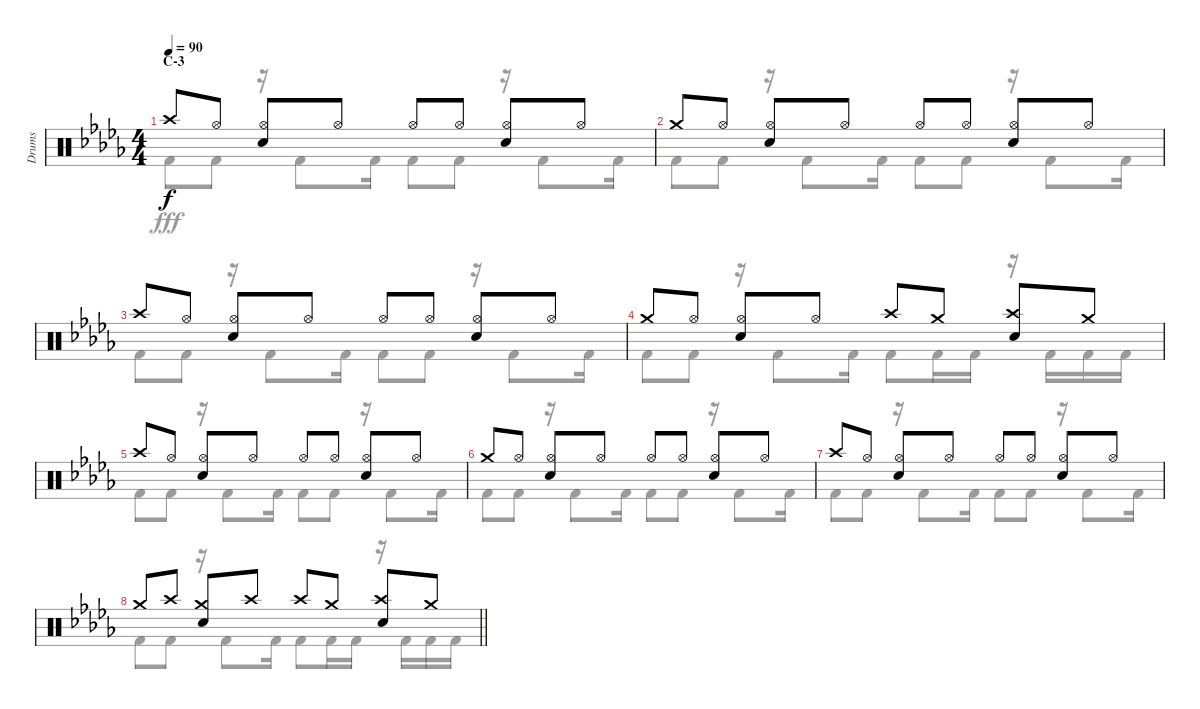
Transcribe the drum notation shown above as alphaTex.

\track ("Drums" "Drums") {instrument percussion}
\staff {score}
\articulation defaults
\voice
\ts (4 4)
\section ("" "C-3")
\tempo 90
\clef neutral
\ks db "Crash high (hit)".8{dy f} "Hi-Hat (open)".8
("Hi-Hat (open)" "Snare (hit) 2").8 "Hi-Hat (open)".8 "Hi-Hat (open)".8 "Hi-Hat (open)".8 ("Hi-Hat (open)" "Snare (hit) 2").8 "Hi-Hat (open)".8 |
"Crash medium (hit)".8 "Hi-Hat (open)".8 ("Hi-Hat (open)" "Snare (hit) 2").8 "Hi-Hat (open)".8 "Hi-Hat (open)".8 "Hi-Hat (open)".8 ("Hi-Hat (open)" "Snare (hit) 2").8 "Hi-Hat (open)".8 |
"Crash high (hit)".8 "Hi-Hat (open)".8 ("Hi-Hat (open)" "Snare (hit) 2").8 "Hi-Hat (open)".8 "Hi-Hat (open)".8 "Hi-Hat (open)".8 ("Hi-Hat (open)" "Snare (hit) 2").8 "Hi-Hat (open)".8 |
"Crash medium (hit)".8 "Hi-Hat (open)".8 ("Hi-Hat (open)" "Snare (hit) 2").8 "Hi-Hat (open)".8 "Crash high (hit)".8 "Crash medium (hit)".8 ("Crash high (hit)" "Snare (hit) 2").8 "Crash medium (hit)".8 |
"Crash high (hit)".8 "Hi-Hat (open)".8 ("Hi-Hat (open)" "Snare (hit) 2").8 "Hi-Hat (open)".8 "Hi-Hat (open)".8 "Hi-Hat (open)".8 ("Hi-Hat (open)" "Snare (hit) 2").8 "Hi-Hat (open)".8 |
"Crash medium (hit)".8 "Hi-Hat (open)".8 ("Hi-Hat (open)" "Snare (hit) 2").8 "Hi-Hat (open)".8 "Hi-Hat (open)".8 "Hi-Hat (open)".8 ("Hi-Hat (open)" "Snare (hit) 2").8 "Hi-Hat (open)".8 |
"Crash high (hit)".8 "Hi-Hat (open)".8 ("Hi-Hat (open)" "Snare (hit) 2").8 "Hi-Hat (open)".8 "Hi-Hat (open)".8 "Hi-Hat (open)".8 ("Hi-Hat (open)" "Snare (hit) 2").8 "Hi-Hat (open)".8 |
\barLineRight lightlight "Crash medium (hit)".8 "Crash high (hit)".8
("Crash medium (hit)" "Snare (hit) 2").8 "Crash high (hit)".8 "Crash high (hit)".8 "Crash medium (hit)".8 ("Crash high (hit)" "Snare (hit) 2").8 "Crash medium (hit)".8
\voice
\clef neutral
\ottava regular
\simile none
\ks db "Kick (hit) 2".8{dy fff} "Kick (hit) 2".8
r.16 "Kick (hit) 2".8 "Kick (hit) 2".16 "Kick (hit) 2".8 "Kick (hit) 2".8 r.16 "Kick (hit) 2".8 "Kick (hit) 2".16 |
"Kick (hit) 2".8 "Kick (hit) 2".8 r.16 "Kick (hit) 2".8 "Kick (hit) 2".16 "Kick (hit) 2".8 "Kick (hit) 2".8 r.16 "Kick (hit) 2".8 "Kick (hit) 2".16 |
"Kick (hit) 2".8 "Kick (hit) 2".8 r.16 "Kick (hit) 2".8 "Kick (hit) 2".16 "Kick (hit) 2".8 "Kick (hit) 2".8 r.16 "Kick (hit) 2".8 "Kick (hit) 2".16 |
"Kick (hit) 2".8 "Kick (hit) 2".8 r.16 "Kick (hit) 2".8 "Kick (hit) 2".16 "Kick (hit) 2".8 "Kick (hit) 2".16 "Kick (hit) 2".16 r.16 "Kick (hit) 2".16 "Kick (hit) 2".16 "Kick (hit) 2".16 |
"Kick (hit) 2".8 "Kick (hit) 2".8 r.16 "Kick (hit) 2".8 "Kick (hit) 2".16 "Kick (hit) 2".8 "Kick (hit) 2".8 r.16 "Kick (hit) 2".8 "Kick (hit) 2".16 |
"Kick (hit) 2".8 "Kick (hit) 2".8 r.16 "Kick (hit) 2".8 "Kick (hit) 2".16 "Kick (hit) 2".8 "Kick (hit) 2".8 r.16 "Kick (hit) 2".8 "Kick (hit) 2".16 |
"Kick (hit) 2".8 "Kick (hit) 2".8 r.16 "Kick (hit) 2".8 "Kick (hit) 2".16 "Kick (hit) 2".8 "Kick (hit) 2".8 r.16 "Kick (hit) 2".8 "Kick (hit) 2".16 |
\barLineRight lightlight "Kick (hit) 2".8 "Kick (hit) 2".8
r.16 "Kick (hit) 2".8 "Kick (hit) 2".16 "Kick (hit) 2".8 "Kick (hit) 2".16 "Kick (hit) 2".16 r.16 "Kick (hit) 2".16 "Kick (hit) 2".16 "Kick (hit) 2".16
